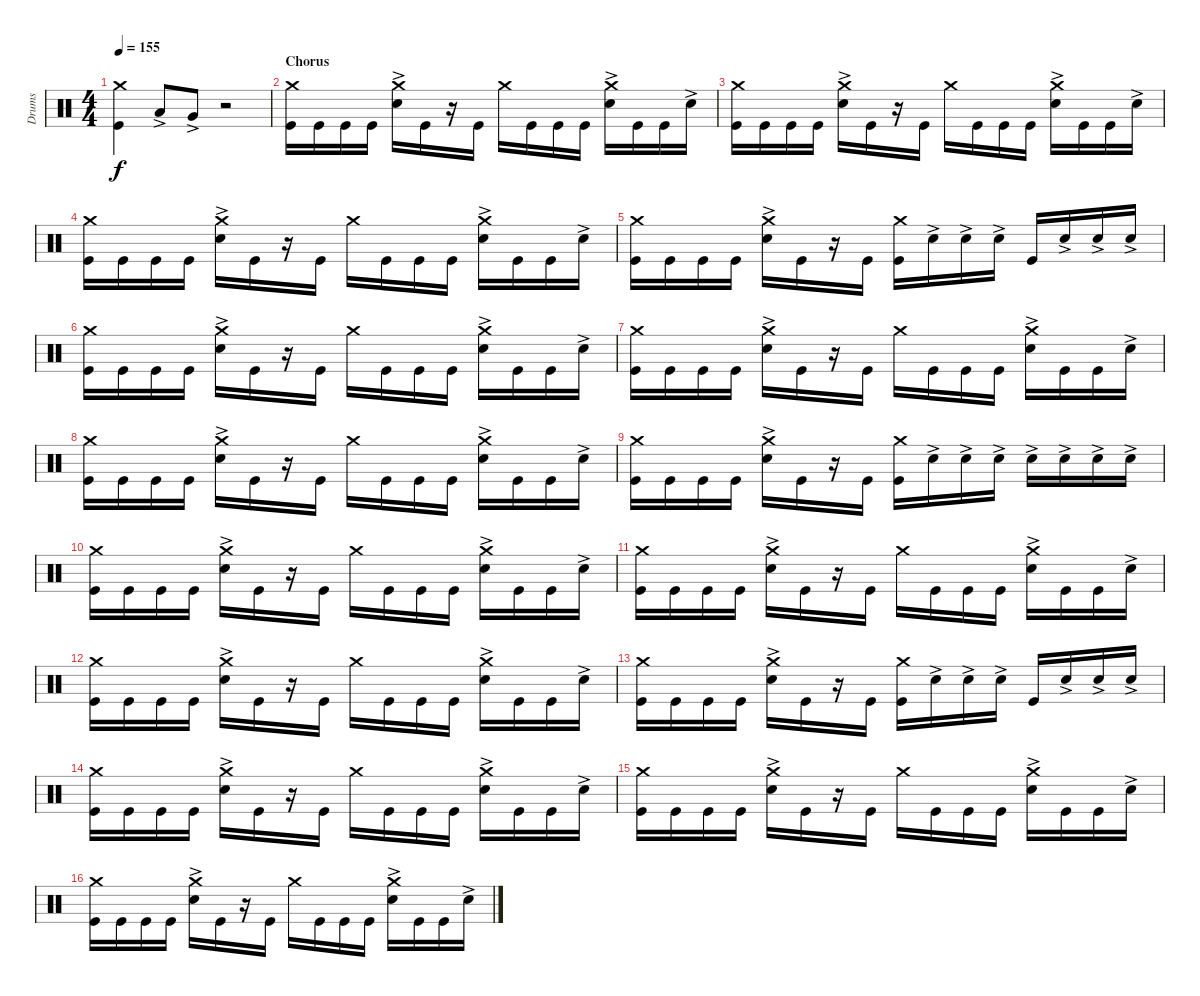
\track ("Drums" "Drums") {instrument percussion}
\staff {score}
\articulation defaults
\ts (4 4)
\tempo 155
\clef neutral
\ks c
("Kick (hit)" "Crash medium (hit)").4{dy f} "Low Tom (hit)"{ac}.8 "Very Low Tom (hit)"{ac}.8 r.2 |
\section ("" "Chorus")
("Crash medium (hit)" "Kick (hit)").16 "Kick (hit)".16 "Kick (hit)".16 "Kick (hit)".16 ("Crash medium (hit)" "Snare (hit) 2"{ac}).16 "Kick (hit)".16 r.16 "Kick (hit)".16 "Crash medium (hit)".16 "Kick (hit)".16 "Kick (hit)".16 "Kick (hit)".16 ("Crash medium (hit)" "Snare (hit) 2"{ac}).16 "Kick (hit)".16 "Kick (hit)".16 "Snare (hit) 2"{ac}.16 |
("Crash medium (hit)" "Kick (hit)").16 "Kick (hit)".16 "Kick (hit)".16 "Kick (hit)".16 ("Crash medium (hit)" "Snare (hit) 2"{ac}).16 "Kick (hit)".16 r.16 "Kick (hit)".16 "Crash medium (hit)".16 "Kick (hit)".16 "Kick (hit)".16 "Kick (hit)".16 ("Crash medium (hit)" "Snare (hit) 2"{ac}).16 "Kick (hit)".16 "Kick (hit)".16 "Snare (hit) 2"{ac}.16 |
("Crash medium (hit)" "Kick (hit)").16 "Kick (hit)".16 "Kick (hit)".16 "Kick (hit)".16 ("Crash medium (hit)" "Snare (hit) 2"{ac}).16 "Kick (hit)".16 r.16 "Kick (hit)".16 "Crash medium (hit)".16 "Kick (hit)".16 "Kick (hit)".16 "Kick (hit)".16 ("Crash medium (hit)" "Snare (hit) 2"{ac}).16 "Kick (hit)".16 "Kick (hit)".16 "Snare (hit) 2"{ac}.16 |
("Crash medium (hit)" "Kick (hit)").16 "Kick (hit)".16 "Kick (hit)".16 "Kick (hit)".16 ("Crash medium (hit)" "Snare (hit) 2"{ac}).16 "Kick (hit)".16 r.16 "Kick (hit)".16 ("Kick (hit)" "Crash medium (hit)").16 "Snare (hit) 2"{ac}.16 "Snare (hit) 2"{ac}.16 "Snare (hit) 2"{ac}.16 "Kick (hit)".16 "Snare (hit) 2"{ac}.16 "Snare (hit) 2"{ac}.16 "Snare (hit) 2"{ac}.16 |
("Crash medium (hit)" "Kick (hit)").16 "Kick (hit)".16 "Kick (hit)".16 "Kick (hit)".16 ("Crash medium (hit)" "Snare (hit) 2"{ac}).16 "Kick (hit)".16 r.16 "Kick (hit)".16 "Crash medium (hit)".16 "Kick (hit)".16 "Kick (hit)".16 "Kick (hit)".16 ("Crash medium (hit)" "Snare (hit) 2"{ac}).16 "Kick (hit)".16 "Kick (hit)".16 "Snare (hit) 2"{ac}.16 |
("Crash medium (hit)" "Kick (hit)").16 "Kick (hit)".16 "Kick (hit)".16 "Kick (hit)".16 ("Crash medium (hit)" "Snare (hit) 2"{ac}).16 "Kick (hit)".16 r.16 "Kick (hit)".16 "Crash medium (hit)".16 "Kick (hit)".16 "Kick (hit)".16 "Kick (hit)".16 ("Crash medium (hit)" "Snare (hit) 2"{ac}).16 "Kick (hit)".16 "Kick (hit)".16 "Snare (hit) 2"{ac}.16 |
("Crash medium (hit)" "Kick (hit)").16 "Kick (hit)".16 "Kick (hit)".16 "Kick (hit)".16 ("Crash medium (hit)" "Snare (hit) 2"{ac}).16 "Kick (hit)".16 r.16 "Kick (hit)".16 "Crash medium (hit)".16 "Kick (hit)".16 "Kick (hit)".16 "Kick (hit)".16 ("Crash medium (hit)" "Snare (hit) 2"{ac}).16 "Kick (hit)".16 "Kick (hit)".16 "Snare (hit) 2"{ac}.16 |
("Crash medium (hit)" "Kick (hit)").16 "Kick (hit)".16 "Kick (hit)".16 "Kick (hit)".16 ("Crash medium (hit)" "Snare (hit) 2"{ac}).16 "Kick (hit)".16 r.16 "Kick (hit)".16 ("Kick (hit)" "Crash medium (hit)").16 "Snare (hit) 2"{ac}.16 "Snare (hit) 2"{ac}.16 "Snare (hit) 2"{ac}.16 "Snare (hit) 2"{ac}.16 "Snare (hit) 2"{ac}.16 "Snare (hit) 2"{ac}.16 "Snare (hit) 2"{ac}.16 |
("Crash medium (hit)" "Kick (hit)").16 "Kick (hit)".16 "Kick (hit)".16 "Kick (hit)".16 ("Crash medium (hit)" "Snare (hit) 2"{ac}).16 "Kick (hit)".16 r.16 "Kick (hit)".16 "Crash medium (hit)".16 "Kick (hit)".16 "Kick (hit)".16 "Kick (hit)".16 ("Crash medium (hit)" "Snare (hit) 2"{ac}).16 "Kick (hit)".16 "Kick (hit)".16 "Snare (hit) 2"{ac}.16 |
("Crash medium (hit)" "Kick (hit)").16 "Kick (hit)".16 "Kick (hit)".16 "Kick (hit)".16 ("Crash medium (hit)" "Snare (hit) 2"{ac}).16 "Kick (hit)".16 r.16 "Kick (hit)".16 "Crash medium (hit)".16 "Kick (hit)".16 "Kick (hit)".16 "Kick (hit)".16 ("Crash medium (hit)" "Snare (hit) 2"{ac}).16 "Kick (hit)".16 "Kick (hit)".16 "Snare (hit) 2"{ac}.16 |
("Crash medium (hit)" "Kick (hit)").16 "Kick (hit)".16 "Kick (hit)".16 "Kick (hit)".16 ("Crash medium (hit)" "Snare (hit) 2"{ac}).16 "Kick (hit)".16 r.16 "Kick (hit)".16 "Crash medium (hit)".16 "Kick (hit)".16 "Kick (hit)".16 "Kick (hit)".16 ("Crash medium (hit)" "Snare (hit) 2"{ac}).16 "Kick (hit)".16 "Kick (hit)".16 "Snare (hit) 2"{ac}.16 |
("Crash medium (hit)" "Kick (hit)").16 "Kick (hit)".16 "Kick (hit)".16 "Kick (hit)".16 ("Crash medium (hit)" "Snare (hit) 2"{ac}).16 "Kick (hit)".16 r.16 "Kick (hit)".16 ("Kick (hit)" "Crash medium (hit)").16 "Snare (hit) 2"{ac}.16 "Snare (hit) 2"{ac}.16 "Snare (hit) 2"{ac}.16 "Kick (hit)".16 "Snare (hit) 2"{ac}.16 "Snare (hit) 2"{ac}.16 "Snare (hit) 2"{ac}.16 |
("Crash medium (hit)" "Kick (hit)").16 "Kick (hit)".16 "Kick (hit)".16 "Kick (hit)".16 ("Crash medium (hit)" "Snare (hit) 2"{ac}).16 "Kick (hit)".16 r.16 "Kick (hit)".16 "Crash medium (hit)".16 "Kick (hit)".16 "Kick (hit)".16 "Kick (hit)".16 ("Crash medium (hit)" "Snare (hit) 2"{ac}).16 "Kick (hit)".16 "Kick (hit)".16 "Snare (hit) 2"{ac}.16 |
("Crash medium (hit)" "Kick (hit)").16 "Kick (hit)".16 "Kick (hit)".16 "Kick (hit)".16 ("Crash medium (hit)" "Snare (hit) 2"{ac}).16 "Kick (hit)".16 r.16 "Kick (hit)".16 "Crash medium (hit)".16 "Kick (hit)".16 "Kick (hit)".16 "Kick (hit)".16 ("Crash medium (hit)" "Snare (hit) 2"{ac}).16 "Kick (hit)".16 "Kick (hit)".16 "Snare (hit) 2"{ac}.16 |
("Crash medium (hit)" "Kick (hit)").16 "Kick (hit)".16 "Kick (hit)".16 "Kick (hit)".16 ("Crash medium (hit)" "Snare (hit) 2"{ac}).16 "Kick (hit)".16 r.16 "Kick (hit)".16 "Crash medium (hit)".16 "Kick (hit)".16 "Kick (hit)".16 "Kick (hit)".16 ("Crash medium (hit)" "Snare (hit) 2"{ac}).16 "Kick (hit)".16 "Kick (hit)".16 "Snare (hit) 2"{ac}.16
